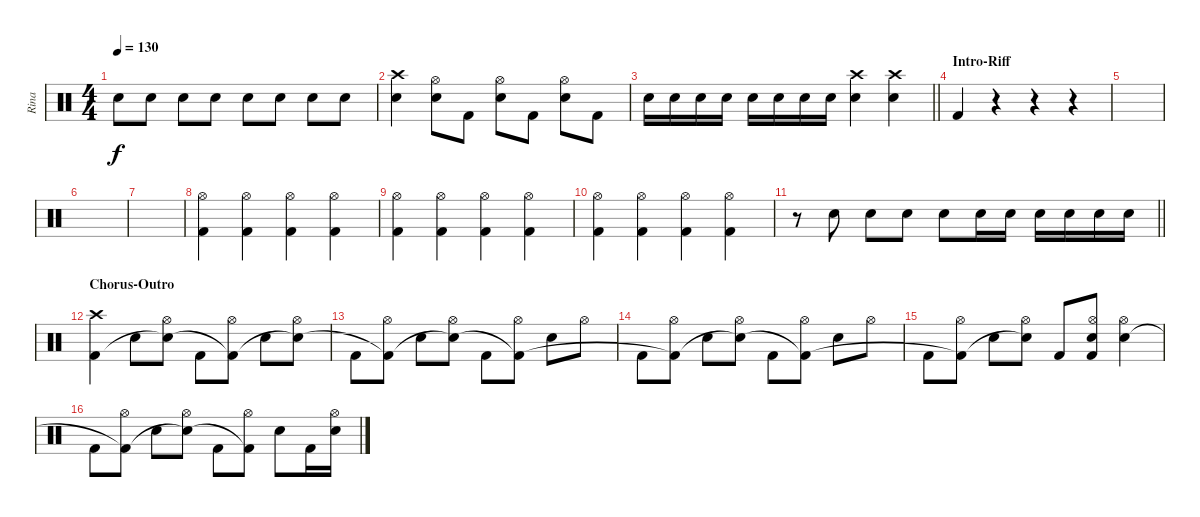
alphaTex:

\track ("Rina" "Rina") {instrument percussion}
\staff {score}
\articulation defaults
\ts (4 4)
\tempo 130
\clef neutral
\ks c "Snare (hit) 2".8{dy f} "Snare (hit) 2".8 "Snare (hit) 2".8 "Snare (hit) 2".8 "Snare (hit) 2".8 "Snare (hit) 2".8 "Snare (hit) 2".8 "Snare (hit) 2".8
|
("Crash high (hit)" "Snare (hit) 2").4 ("Hi-Hat (open)" "Snare (hit) 2").8 "Kick (hit) 2".8 ("Hi-Hat (open)" "Snare (hit) 2").8 "Kick (hit) 2".8 ("Hi-Hat (open)" "Snare (hit) 2").8 "Kick (hit) 2".8 |
\barLineRight lightlight "Snare (hit) 2".16 "Snare (hit) 2".16 "Snare (hit) 2".16 "Snare (hit) 2".16 "Snare (hit) 2".16 "Snare (hit) 2".16 "Snare (hit) 2".16 "Snare (hit) 2".16
("Crash high (hit)" "Snare (hit) 2").4 ("Crash high (hit)" "Snare (hit) 2").4 |
\section ("" "Intro-Riff")
"Kick (hit) 2".4 r.4 r.4 r.4 |
|
|
|
("Hi-Hat (open)" "Kick (hit) 2").4 ("Hi-Hat (open)" "Kick (hit) 2").4 ("Hi-Hat (open)" "Kick (hit) 2").4 ("Hi-Hat (open)" "Kick (hit) 2").4 |
("Hi-Hat (open)" "Kick (hit) 2").4 ("Hi-Hat (open)" "Kick (hit) 2").4 ("Hi-Hat (open)" "Kick (hit) 2").4 ("Hi-Hat (open)" "Kick (hit) 2").4 |
("Hi-Hat (open)" "Kick (hit) 2").4 ("Hi-Hat (open)" "Kick (hit) 2").4 ("Hi-Hat (open)" "Kick (hit) 2").4 ("Hi-Hat (open)" "Kick (hit) 2").4 |
\barLineRight lightlight
r.8 "Snare (hit) 2".8 "Snare (hit) 2".8 "Snare (hit) 2".8 "Snare (hit) 2".8 "Snare (hit) 2".16 "Snare (hit) 2".16 "Snare (hit) 2".16 "Snare (hit) 2".16 "Snare (hit) 2".16 "Snare (hit) 2".16 |
\section ("" "Chorus-Outro")
("Crash high (hit)" "Kick (hit) 2").4 "Snare (hit) 2".8 ("Hi-Hat (open)" "Snare (hit) 2"{t}).8 "Kick (hit) 2".8 ("Hi-Hat (open)" "Kick (hit) 2"{t}).8 "Snare (hit) 2".8 ("Hi-Hat (open)" "Snare (hit) 2"{t}).8 |
"Kick (hit) 2".8 ("Hi-Hat (open)" "Kick (hit) 2"{t}).8 "Snare (hit) 2".8 ("Hi-Hat (open)" "Snare (hit) 2"{t}).8 "Kick (hit) 2".8 ("Hi-Hat (open)" "Kick (hit) 2"{t}).8 "Snare (hit) 2".8 "Hi-Hat (open)".8 |
"Kick (hit) 2".8 ("Hi-Hat (open)" "Kick (hit) 2"{t}).8 "Snare (hit) 2".8 ("Hi-Hat (open)" "Snare (hit) 2"{t}).8 "Kick (hit) 2".8 ("Hi-Hat (open)" "Kick (hit) 2"{t}).8 "Snare (hit) 2".8 "Hi-Hat (open)".8 |
"Kick (hit) 2".8 ("Hi-Hat (open)" "Kick (hit) 2"{t}).8 "Snare (hit) 2".8 ("Hi-Hat (open)" "Snare (hit) 2"{t}).8 "Kick (hit) 2".8 ("Hi-Hat (open)" "Snare (hit) 2" "Kick (hit) 2").8 ("Hi-Hat (open)" "Snare (hit) 2").4 |
"Kick (hit) 2".8 ("Hi-Hat (open)" "Kick (hit) 2"{t}).8 "Snare (hit) 2".8 ("Hi-Hat (open)" "Snare (hit) 2"{t}).8 "Kick (hit) 2".8 ("Hi-Hat (open)" "Kick (hit) 2"{t}).8 "Snare (hit) 2".8 "Kick (hit) 2".16 ("Hi-Hat (open)" "Snare (hit) 2").16
